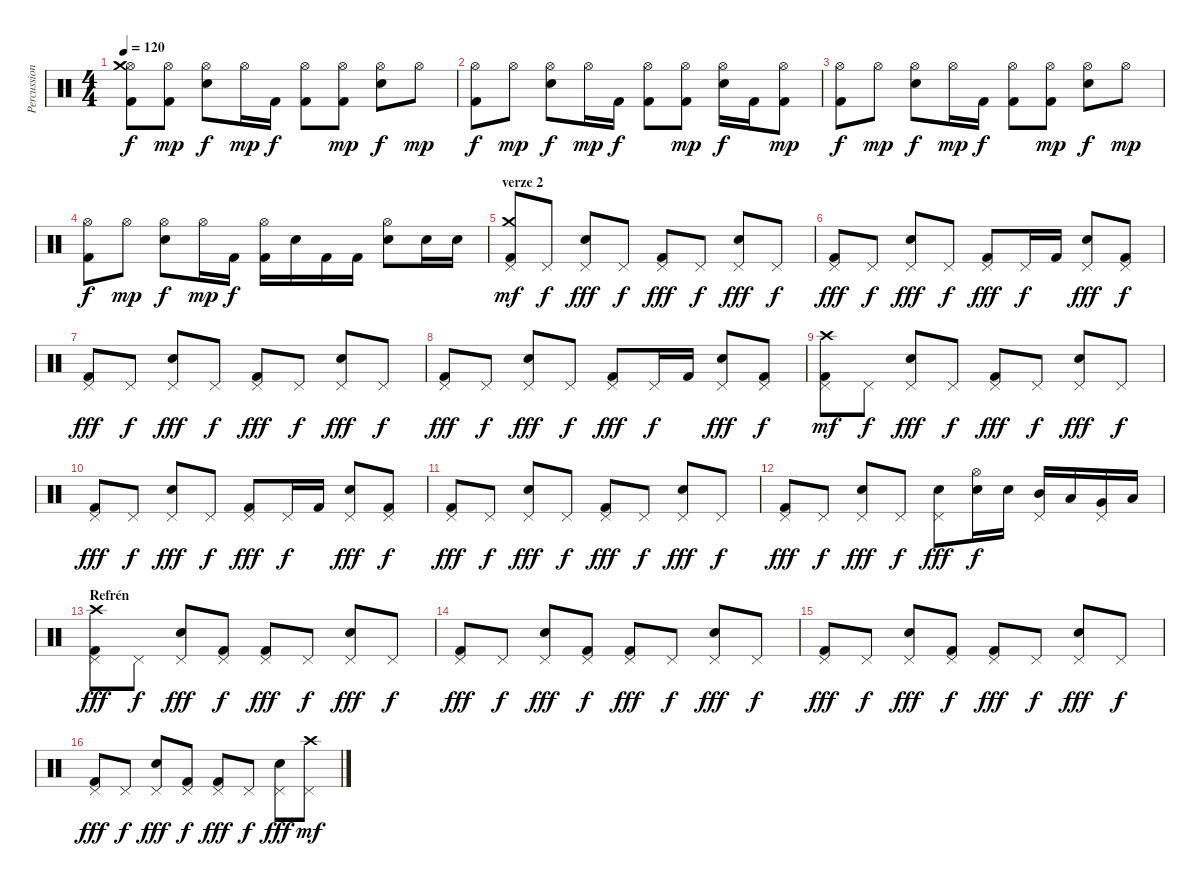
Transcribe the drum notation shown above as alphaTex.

\track ("Percussion" "Percussion") {instrument percussion}
\staff {score}
\articulation defaults
\ts (4 4)
\tempo 120
\clef neutral
\ks c
("Hi-Hat (open)" "Kick (hit) 2" "Crash medium (hit)").8{dy f} ("Hi-Hat (open)" "Kick (hit) 2").8{dy mp} ("Hi-Hat (open)" "Snare (hit) 2").8{dy f} "Hi-Hat (open)".16{dy mp} "Kick (hit) 2".16{dy f} ("Hi-Hat (open)" "Kick (hit) 2").8 ("Hi-Hat (open)" "Kick (hit) 2").8{dy mp} ("Hi-Hat (open)" "Snare (hit) 2").8{dy f} "Hi-Hat (open)".8{dy mp} |
("Hi-Hat (open)" "Kick (hit) 2").8{dy f} "Hi-Hat (open)".8{dy mp} ("Hi-Hat (open)" "Snare (hit) 2").8{dy f} "Hi-Hat (open)".16{dy mp} "Kick (hit) 2".16{dy f} ("Hi-Hat (open)" "Kick (hit) 2").8 ("Hi-Hat (open)" "Kick (hit) 2").8{dy mp} ("Hi-Hat (open)" "Snare (hit) 2").16{dy f} "Kick (hit) 2".16 ("Hi-Hat (open)" "Kick (hit) 2").8{dy mp} |
("Hi-Hat (open)" "Kick (hit) 2").8{dy f} "Hi-Hat (open)".8{dy mp} ("Hi-Hat (open)" "Snare (hit) 2").8{dy f} "Hi-Hat (open)".16{dy mp} "Kick (hit) 2".16{dy f} ("Hi-Hat (open)" "Kick (hit) 2").8 ("Hi-Hat (open)" "Kick (hit) 2").8{dy mp} ("Hi-Hat (open)" "Snare (hit) 2").8{dy f} "Hi-Hat (open)".8{dy mp} |
("Hi-Hat (open)" "Kick (hit) 2").8{dy f} "Hi-Hat (open)".8{dy mp} ("Hi-Hat (open)" "Snare (hit) 2").8{dy f} "Hi-Hat (open)".16{dy mp} "Kick (hit) 2".16{dy f} ("Hi-Hat (open)" "Kick (hit) 2").16 "Snare (hit) 2".16 "Kick (hit) 2".16 "Kick (hit) 2".16 ("Hi-Hat (open)" "Snare (hit) 2").8 "Snare (hit) 2".16 "Snare (hit) 2".16 |
\section ("" "verze 2")
("Pedal Hi-Hat (hit)" "Kick (hit) 2" "Crash medium (hit)").8{dy mf} "Pedal Hi-Hat (hit)".8{dy f} ("Pedal Hi-Hat (hit)" "Snare (hit) 2").8{dy fff} "Pedal Hi-Hat (hit)".8{dy f} ("Pedal Hi-Hat (hit)" "Kick (hit) 2").8{dy fff} "Pedal Hi-Hat (hit)".8{dy f} ("Pedal Hi-Hat (hit)" "Snare (hit) 2").8{dy fff} "Pedal Hi-Hat (hit)".8{dy f} |
("Pedal Hi-Hat (hit)" "Kick (hit) 2").8{dy fff} "Pedal Hi-Hat (hit)".8{dy f} ("Pedal Hi-Hat (hit)" "Snare (hit) 2").8{dy fff} "Pedal Hi-Hat (hit)".8{dy f} ("Pedal Hi-Hat (hit)" "Kick (hit) 2").8{dy fff} "Pedal Hi-Hat (hit)".16{dy f} "Kick (hit) 2".16 ("Pedal Hi-Hat (hit)" "Snare (hit) 2").8{dy fff} ("Pedal Hi-Hat (hit)" "Kick (hit) 2").8{dy f} |
("Pedal Hi-Hat (hit)" "Kick (hit) 2").8{dy fff} "Pedal Hi-Hat (hit)".8{dy f} ("Pedal Hi-Hat (hit)" "Snare (hit) 2").8{dy fff} "Pedal Hi-Hat (hit)".8{dy f} ("Pedal Hi-Hat (hit)" "Kick (hit) 2").8{dy fff} "Pedal Hi-Hat (hit)".8{dy f} ("Pedal Hi-Hat (hit)" "Snare (hit) 2").8{dy fff} "Pedal Hi-Hat (hit)".8{dy f} |
("Pedal Hi-Hat (hit)" "Kick (hit) 2").8{dy fff} "Pedal Hi-Hat (hit)".8{dy f} ("Pedal Hi-Hat (hit)" "Snare (hit) 2").8{dy fff} "Pedal Hi-Hat (hit)".8{dy f} ("Pedal Hi-Hat (hit)" "Kick (hit) 2").8{dy fff} "Pedal Hi-Hat (hit)".16{dy f} "Kick (hit) 2".16 ("Pedal Hi-Hat (hit)" "Snare (hit) 2").8{dy fff} ("Pedal Hi-Hat (hit)" "Kick (hit) 2").8{dy f} |
("Pedal Hi-Hat (hit)" "Kick (hit) 2" "Crash high (hit)").8{dy mf} "Pedal Hi-Hat (hit)".8{dy f} ("Pedal Hi-Hat (hit)" "Snare (hit) 2").8{dy fff} "Pedal Hi-Hat (hit)".8{dy f} ("Pedal Hi-Hat (hit)" "Kick (hit) 2").8{dy fff} "Pedal Hi-Hat (hit)".8{dy f} ("Pedal Hi-Hat (hit)" "Snare (hit) 2").8{dy fff} "Pedal Hi-Hat (hit)".8{dy f} |
("Pedal Hi-Hat (hit)" "Kick (hit) 2").8{dy fff} "Pedal Hi-Hat (hit)".8{dy f} ("Pedal Hi-Hat (hit)" "Snare (hit) 2").8{dy fff} "Pedal Hi-Hat (hit)".8{dy f} ("Pedal Hi-Hat (hit)" "Kick (hit) 2").8{dy fff} "Pedal Hi-Hat (hit)".16{dy f} "Kick (hit) 2".16 ("Pedal Hi-Hat (hit)" "Snare (hit) 2").8{dy fff} ("Pedal Hi-Hat (hit)" "Kick (hit) 2").8{dy f} |
("Pedal Hi-Hat (hit)" "Kick (hit) 2").8{dy fff} "Pedal Hi-Hat (hit)".8{dy f} ("Pedal Hi-Hat (hit)" "Snare (hit) 2").8{dy fff} "Pedal Hi-Hat (hit)".8{dy f} ("Pedal Hi-Hat (hit)" "Kick (hit) 2").8{dy fff} "Pedal Hi-Hat (hit)".8{dy f} ("Pedal Hi-Hat (hit)" "Snare (hit) 2").8{dy fff} "Pedal Hi-Hat (hit)".8{dy f} |
("Pedal Hi-Hat (hit)" "Kick (hit) 2").8{dy fff} "Pedal Hi-Hat (hit)".8{dy f} ("Pedal Hi-Hat (hit)" "Snare (hit) 2").8{dy fff} "Pedal Hi-Hat (hit)".8{dy f} ("Pedal Hi-Hat (hit)" "Snare (hit) 2").8{dy fff} ("Hi-Hat (open)" "Snare (hit) 2").16{dy f} "Snare (hit) 2".16 ("Pedal Hi-Hat (hit)" "Mid Tom (hit)").16 "Low Tom (hit)".16 ("Pedal Hi-Hat (hit)" "Very Low Tom (hit)").16 "Low Floor Tom (hit)".16 |
\section ("" "Refrén")
("Pedal Hi-Hat (hit)" "Kick (hit) 2" "Crash high (hit)").8{dy fff} "Pedal Hi-Hat (hit)".8{dy f} ("Pedal Hi-Hat (hit)" "Snare (hit) 2").8{dy fff} ("Pedal Hi-Hat (hit)" "Kick (hit) 2").8{dy f} ("Pedal Hi-Hat (hit)" "Kick (hit) 2").8{dy fff} "Pedal Hi-Hat (hit)".8{dy f} ("Pedal Hi-Hat (hit)" "Snare (hit) 2").8{dy fff} "Pedal Hi-Hat (hit)".8{dy f} |
("Pedal Hi-Hat (hit)" "Kick (hit) 2").8{dy fff} "Pedal Hi-Hat (hit)".8{dy f} ("Pedal Hi-Hat (hit)" "Snare (hit) 2").8{dy fff} ("Pedal Hi-Hat (hit)" "Kick (hit) 2").8{dy f} ("Pedal Hi-Hat (hit)" "Kick (hit) 2").8{dy fff} "Pedal Hi-Hat (hit)".8{dy f} ("Pedal Hi-Hat (hit)" "Snare (hit) 2").8{dy fff} "Pedal Hi-Hat (hit)".8{dy f} |
("Pedal Hi-Hat (hit)" "Kick (hit) 2").8{dy fff} "Pedal Hi-Hat (hit)".8{dy f} ("Pedal Hi-Hat (hit)" "Snare (hit) 2").8{dy fff} ("Pedal Hi-Hat (hit)" "Kick (hit) 2").8{dy f} ("Pedal Hi-Hat (hit)" "Kick (hit) 2").8{dy fff} "Pedal Hi-Hat (hit)".8{dy f} ("Pedal Hi-Hat (hit)" "Snare (hit) 2").8{dy fff} "Pedal Hi-Hat (hit)".8{dy f} |
("Pedal Hi-Hat (hit)" "Kick (hit) 2").8{dy fff} "Pedal Hi-Hat (hit)".8{dy f} ("Pedal Hi-Hat (hit)" "Snare (hit) 2").8{dy fff} ("Pedal Hi-Hat (hit)" "Kick (hit) 2").8{dy f} ("Pedal Hi-Hat (hit)" "Kick (hit) 2").8{dy fff} "Pedal Hi-Hat (hit)".8{dy f} ("Pedal Hi-Hat (hit)" "Snare (hit) 2").8{dy fff} ("Pedal Hi-Hat (hit)" "Crash high (hit)").8{dy mf}
